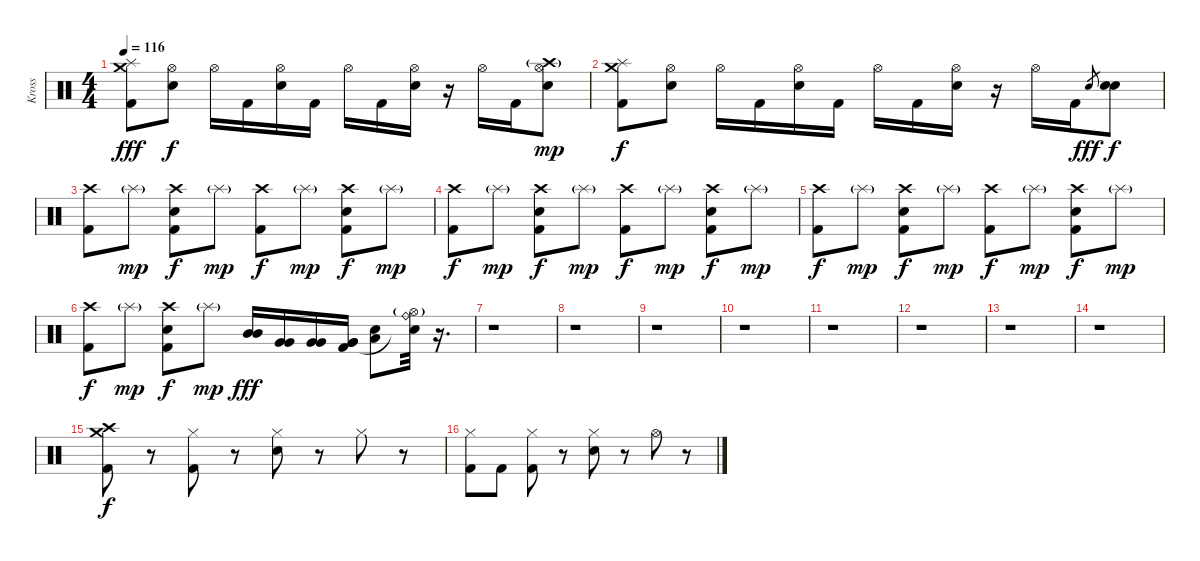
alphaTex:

\track ("Kross" "Kross") {instrument percussion}
\staff {score}
\articulation defaults
\ts (4 4)
\tempo 116
\clef neutral
\ks c
("Crash medium (hit)" "Splash (hit)" "Kick (hit) 2").8{dy fff} ("Hi-Hat (open)" "Electric Snare (hit)").8{dy f} "Hi-Hat (open)".16 "Kick (hit) 2".16 ("Hi-Hat (open)" "Electric Snare (hit)").16 "Kick (hit) 2".16 "Hi-Hat (open)".16 "Kick (hit) 2".16 ("Hi-Hat (open)" "Electric Snare (hit)").16 r.16 "Hi-Hat (open)".16 "Kick (hit) 2".16 ("Hi-Hat (open)" "Crash high (hit)"{g} "Electric Snare (hit)").8{dy mp} |
("Crash medium (hit)" "Splash (hit)" "Kick (hit) 2").8{dy f} ("Hi-Hat (open)" "Electric Snare (hit)").8 "Hi-Hat (open)".16 "Kick (hit) 2".16 ("Hi-Hat (open)" "Electric Snare (hit)").16 "Kick (hit) 2".16 "Hi-Hat (open)".16 "Kick (hit) 2".16 ("Hi-Hat (open)" "Electric Snare (hit)").16 r.16 "Hi-Hat (open)".16 "Kick (hit) 2".16 "Electric Snare (hit)".8{gr dy fff} ("Electric Snare (hit)" "Electric Snare (hit)").8{dy f} |
("Crash high (hit)" "Kick (hit) 2").8 "Splash (hit)"{g}.8{dy mp} ("Crash high (hit)" "Electric Snare (hit)" "Kick (hit) 2").8{dy f} "Splash (hit)"{g}.8{dy mp} ("Crash high (hit)" "Kick (hit) 2").8{dy f} "Splash (hit)"{g}.8{dy mp} ("Crash high (hit)" "Electric Snare (hit)" "Kick (hit) 2").8{dy f} "Splash (hit)"{g}.8{dy mp} |
("Crash high (hit)" "Kick (hit) 2").8{dy f} "Splash (hit)"{g}.8{dy mp} ("Crash high (hit)" "Electric Snare (hit)" "Kick (hit) 2").8{dy f} "Splash (hit)"{g}.8{dy mp} ("Crash high (hit)" "Kick (hit) 2").8{dy f} "Splash (hit)"{g}.8{dy mp} ("Crash high (hit)" "Electric Snare (hit)" "Kick (hit) 2").8{dy f} "Splash (hit)"{g}.8{dy mp} |
("Crash high (hit)" "Kick (hit) 2").8{dy f} "Splash (hit)"{g}.8{dy mp} ("Crash high (hit)" "Electric Snare (hit)" "Kick (hit) 2").8{dy f} "Splash (hit)"{g}.8{dy mp} ("Crash high (hit)" "Kick (hit) 2").8{dy f} "Splash (hit)"{g}.8{dy mp} ("Crash high (hit)" "Electric Snare (hit)" "Kick (hit) 2").8{dy f} "Splash (hit)"{g}.8{dy mp} |
("Crash high (hit)" "Kick (hit) 2").8{dy f} "Splash (hit)"{g}.8{dy mp} ("Crash high (hit)" "Electric Snare (hit)" "Kick (hit) 2").8{dy f} "Splash (hit)"{g}.8{dy mp} ("Mid Tom (hit)" "Mid Tom (hit)").16{dy fff} ("Very Low Tom (hit)" "Very Low Tom (hit)").16 ("Very Low Tom (hit)" "Very Low Tom (hit)").16 ("Very Low Tom (hit)" "Very Low Tom (hit)" "Kick (hit) 2").16 ("Electric Snare (hit)" "Low Tom (hit)").8 ("Ride (bell)" "Hi-Hat (open)"{g} "Electric Snare (hit)"{t}).32 r.16{d} |
r.1 |
r.1 |
r.1 |
r.1 |
r.1 |
r.1 |
r.1 |
r.1 |
("Crash medium (hit)" "Crash high (hit)" "Kick (hit) 2").8{dy f} r.8 ("Hi-Hat (closed)" "Kick (hit) 2").8 r.8 ("Hi-Hat (closed)" "Electric Snare (hit)").8 r.8 "Hi-Hat (closed)".8 r.8 |
("Hi-Hat (closed)" "Kick (hit) 2").8 "Kick (hit) 2".8 ("Hi-Hat (closed)" "Kick (hit) 2").8 r.8 ("Hi-Hat (closed)" "Electric Snare (hit)").8 r.8 "Hi-Hat (open)".8 r.8
